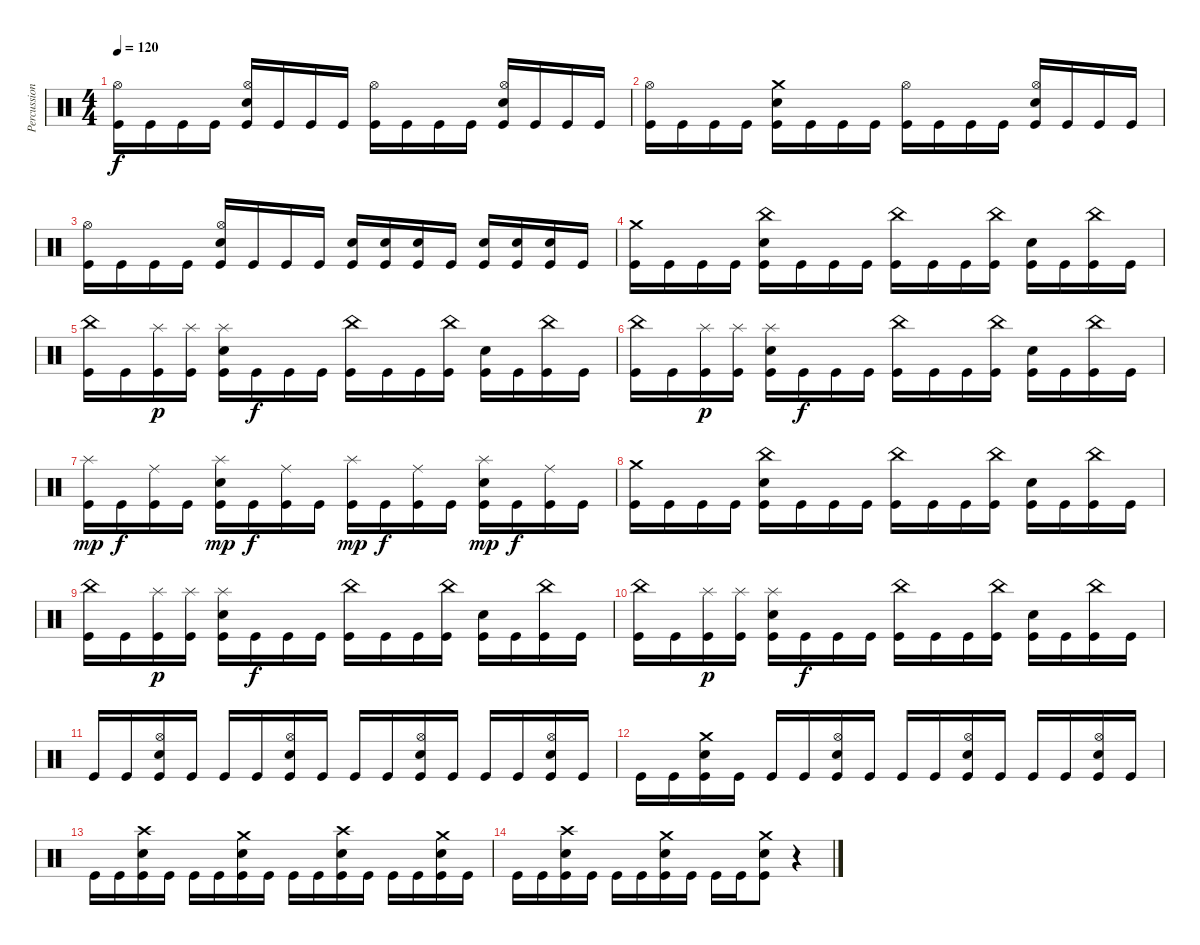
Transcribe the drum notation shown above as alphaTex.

\track ("Percussions" "Percussion") {instrument percussion}
\staff {score}
\articulation defaults
\ts (4 4)
\tempo 120
\clef neutral
\ks c
("Kick (hit)" "Hi-Hat (open)").16{dy f} "Kick (hit)".16 "Kick (hit)".16 "Kick (hit)".16 ("Kick (hit)" "Electric Snare (hit)" "Hi-Hat (open)").16 "Kick (hit)".16 "Kick (hit)".16 "Kick (hit)".16 ("Kick (hit)" "Hi-Hat (open)").16 "Kick (hit)".16 "Kick (hit)".16 "Kick (hit)".16 ("Kick (hit)" "Electric Snare (hit)" "Hi-Hat (open)").16 "Kick (hit)".16 "Kick (hit)".16 "Kick (hit)".16 |
("Kick (hit)" "Hi-Hat (open)").16 "Kick (hit)".16 "Kick (hit)".16 "Kick (hit)".16 ("Kick (hit)" "Electric Snare (hit)" "Crash medium (hit)").16 "Kick (hit)".16 "Kick (hit)".16 "Kick (hit)".16 ("Kick (hit)" "Hi-Hat (open)").16 "Kick (hit)".16 "Kick (hit)".16 "Kick (hit)".16 ("Kick (hit)" "Electric Snare (hit)" "Hi-Hat (open)").16 "Kick (hit)".16 "Kick (hit)".16 "Kick (hit)".16 |
("Kick (hit)" "Hi-Hat (open)").16 "Kick (hit)".16 "Kick (hit)".16 "Kick (hit)".16 ("Kick (hit)" "Electric Snare (hit)" "Hi-Hat (open)").16 "Kick (hit)".16 "Kick (hit)".16 "Kick (hit)".16 ("Kick (hit)" "Electric Snare (hit)").16 ("Kick (hit)" "Electric Snare (hit)").16 ("Kick (hit)" "Electric Snare (hit)").16 "Kick (hit)".16 ("Kick (hit)" "Electric Snare (hit)").16 ("Kick (hit)" "Electric Snare (hit)").16 ("Kick (hit)" "Electric Snare (hit)").16 "Kick (hit)".16 |
("Kick (hit)" "Crash medium (hit)").16 "Kick (hit)".16 "Kick (hit)".16 "Kick (hit)".16 ("Kick (hit)" "Electric Snare (hit)" "China (hit)").16 "Kick (hit)".16 "Kick (hit)".16 "Kick (hit)".16 ("Kick (hit)" "China (hit)").16 "Kick (hit)".16 "Kick (hit)".16 ("Kick (hit)" "China (hit)").16 ("Kick (hit)" "Electric Snare (hit)").16 "Kick (hit)".16 ("Kick (hit)" "China (hit)").16 "Kick (hit)".16 |
("Kick (hit)" "China (hit)").16 "Kick (hit)".16 ("Kick (hit)" "Splash (hit)").16{dy p} ("Kick (hit)" "Splash (hit)").16 ("Kick (hit)" "Electric Snare (hit)" "Splash (hit)").16 "Kick (hit)".16{dy f} "Kick (hit)".16 "Kick (hit)".16 ("Kick (hit)" "China (hit)").16 "Kick (hit)".16 "Kick (hit)".16 ("Kick (hit)" "China (hit)").16 ("Kick (hit)" "Electric Snare (hit)").16 "Kick (hit)".16 ("Kick (hit)" "China (hit)").16 "Kick (hit)".16 |
("Kick (hit)" "China (hit)").16 "Kick (hit)".16 ("Kick (hit)" "Splash (hit)").16{dy p} ("Kick (hit)" "Splash (hit)").16 ("Kick (hit)" "Electric Snare (hit)" "Splash (hit)").16 "Kick (hit)".16{dy f} "Kick (hit)".16 "Kick (hit)".16 ("Kick (hit)" "China (hit)").16 "Kick (hit)".16 "Kick (hit)".16 ("Kick (hit)" "China (hit)").16 ("Kick (hit)" "Electric Snare (hit)").16 "Kick (hit)".16 ("Kick (hit)" "China (hit)").16 "Kick (hit)".16 |
("Kick (hit)" "Splash (hit)").16{dy mp} "Kick (hit)".16{dy f} ("Kick (hit)" "Ride (middle)").16 "Kick (hit)".16 ("Kick (hit)" "Electric Snare (hit)" "Splash (hit)").16{dy mp} "Kick (hit)".16{dy f} ("Kick (hit)" "Ride (middle)").16 "Kick (hit)".16 ("Kick (hit)" "Splash (hit)").16{dy mp} "Kick (hit)".16{dy f} ("Kick (hit)" "Ride (middle)").16 "Kick (hit)".16 ("Kick (hit)" "Electric Snare (hit)" "Splash (hit)").16{dy mp} "Kick (hit)".16{dy f} ("Kick (hit)" "Ride (middle)").16 "Kick (hit)".16 |
("Kick (hit)" "Crash medium (hit)").16 "Kick (hit)".16 "Kick (hit)".16 "Kick (hit)".16 ("Kick (hit)" "Electric Snare (hit)" "China (hit)").16 "Kick (hit)".16 "Kick (hit)".16 "Kick (hit)".16 ("Kick (hit)" "China (hit)").16 "Kick (hit)".16 "Kick (hit)".16 ("Kick (hit)" "China (hit)").16 ("Kick (hit)" "Electric Snare (hit)").16 "Kick (hit)".16 ("Kick (hit)" "China (hit)").16 "Kick (hit)".16 |
("Kick (hit)" "China (hit)").16 "Kick (hit)".16 ("Kick (hit)" "Splash (hit)").16{dy p} ("Kick (hit)" "Splash (hit)").16 ("Kick (hit)" "Electric Snare (hit)" "Splash (hit)").16 "Kick (hit)".16{dy f} "Kick (hit)".16 "Kick (hit)".16 ("Kick (hit)" "China (hit)").16 "Kick (hit)".16 "Kick (hit)".16 ("Kick (hit)" "China (hit)").16 ("Kick (hit)" "Electric Snare (hit)").16 "Kick (hit)".16 ("Kick (hit)" "China (hit)").16 "Kick (hit)".16 |
("Kick (hit)" "China (hit)").16 "Kick (hit)".16 ("Kick (hit)" "Splash (hit)").16{dy p} ("Kick (hit)" "Splash (hit)").16 ("Kick (hit)" "Electric Snare (hit)" "Splash (hit)").16 "Kick (hit)".16{dy f} "Kick (hit)".16 "Kick (hit)".16 ("Kick (hit)" "China (hit)").16 "Kick (hit)".16 "Kick (hit)".16 ("Kick (hit)" "China (hit)").16 ("Kick (hit)" "Electric Snare (hit)").16 "Kick (hit)".16 ("Kick (hit)" "China (hit)").16 "Kick (hit)".16 |
"Kick (hit)".16 "Kick (hit)".16 ("Kick (hit)" "Electric Snare (hit)" "Hi-Hat (open)").16 "Kick (hit)".16 "Kick (hit)".16 "Kick (hit)".16 ("Kick (hit)" "Electric Snare (hit)" "Hi-Hat (open)").16 "Kick (hit)".16 "Kick (hit)".16 "Kick (hit)".16 ("Kick (hit)" "Electric Snare (hit)" "Hi-Hat (open)").16 "Kick (hit)".16 "Kick (hit)".16 "Kick (hit)".16 ("Kick (hit)" "Electric Snare (hit)" "Hi-Hat (open)").16 "Kick (hit)".16 |
"Kick (hit)".16 "Kick (hit)".16 ("Kick (hit)" "Electric Snare (hit)" "Crash medium (hit)").16 "Kick (hit)".16 "Kick (hit)".16 "Kick (hit)".16 ("Kick (hit)" "Electric Snare (hit)" "Hi-Hat (open)").16 "Kick (hit)".16 "Kick (hit)".16 "Kick (hit)".16 ("Kick (hit)" "Electric Snare (hit)" "Hi-Hat (open)").16 "Kick (hit)".16 "Kick (hit)".16 "Kick (hit)".16 ("Kick (hit)" "Electric Snare (hit)" "Hi-Hat (open)").16 "Kick (hit)".16 |
"Kick (hit)".16 "Kick (hit)".16 ("Kick (hit)" "Electric Snare (hit)" "Crash high (hit)").16 "Kick (hit)".16 "Kick (hit)".16 "Kick (hit)".16 ("Kick (hit)" "Electric Snare (hit)" "Crash medium (hit)").16 "Kick (hit)".16 "Kick (hit)".16 "Kick (hit)".16 ("Kick (hit)" "Electric Snare (hit)" "Crash high (hit)").16 "Kick (hit)".16 "Kick (hit)".16 "Kick (hit)".16 ("Kick (hit)" "Electric Snare (hit)" "Crash medium (hit)").16 "Kick (hit)".16 |
"Kick (hit)".16 "Kick (hit)".16 ("Kick (hit)" "Electric Snare (hit)" "Crash high (hit)").16 "Kick (hit)".16 "Kick (hit)".16 "Kick (hit)".16 ("Kick (hit)" "Electric Snare (hit)" "Crash medium (hit)").16 "Kick (hit)".16 "Kick (hit)".16 "Kick (hit)".16 ("Kick (hit)" "Electric Snare (hit)" "Crash medium (hit)").8 r.4
